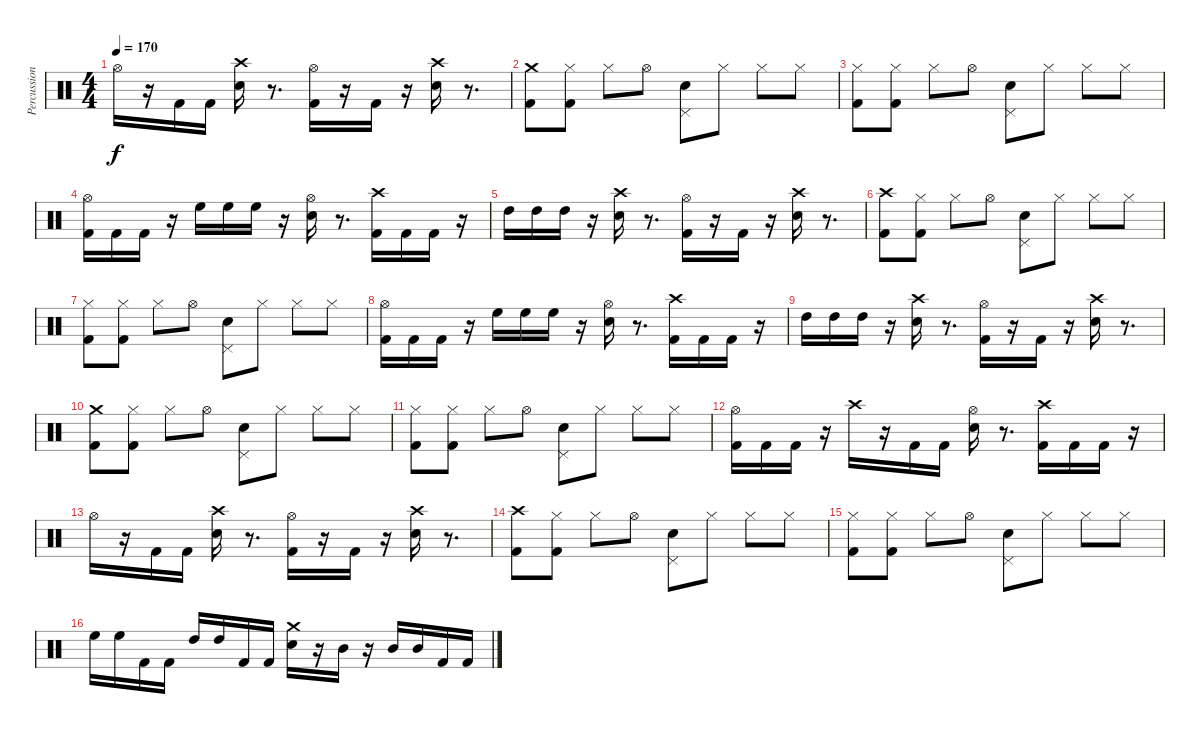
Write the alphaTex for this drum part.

\track ("Percussion" "Percussion") {instrument percussion}
\staff {score}
\articulation defaults
\ts (4 4)
\tempo 170
\clef neutral
\ks c "Hi-Hat (open)".16{dy f}
r.16 "Kick (hit) 2".16 "Kick (hit) 2".16 ("Electric Snare (hit)" "Crash high (hit)").16 r.8{d} ("Kick (hit) 2" "Hi-Hat (open)").16 r.16 "Kick (hit) 2".16 r.16 ("Electric Snare (hit)" "Crash high (hit)").16 r.8{d} |
("Kick (hit) 2" "Crash medium (hit)").8 ("Kick (hit) 2" "Hi-Hat (closed)").8 "Hi-Hat (closed)".8 "Hi-Hat (open)".8 ("Pedal Hi-Hat (hit)" "Electric Snare (hit)").8 "Hi-Hat (closed)".8 "Hi-Hat (closed)".8 "Hi-Hat (closed)".8 |
("Hi-Hat (closed)" "Kick (hit) 2").8 ("Kick (hit) 2" "Hi-Hat (closed)").8 "Hi-Hat (closed)".8 "Hi-Hat (open)".8 ("Pedal Hi-Hat (hit)" "Electric Snare (hit)").8 "Hi-Hat (closed)".8 "Hi-Hat (closed)".8 "Hi-Hat (closed)".8 |
("Hi-Hat (open)" "Kick (hit) 2").16 "Kick (hit) 2".16 "Kick (hit) 2".16 r.16 "High Floor Tom (hit)".16 "High Floor Tom (hit)".16 "High Floor Tom (hit)".16 r.16 ("Hi-Hat (open)" "Electric Snare (hit)").16 r.8{d} ("Kick (hit) 2" "Crash high (hit)").16 "Kick (hit) 2".16 "Kick (hit) 2".16 r.16 |
"High Tom (hit)".16 "High Tom (hit)".16 "High Tom (hit)".16 r.16 ("Electric Snare (hit)" "Crash high (hit)").16 r.8{d} ("Kick (hit) 2" "Hi-Hat (open)").16 r.16 "Kick (hit) 2".16 r.16 ("Electric Snare (hit)" "Crash high (hit)").16 r.8{d} |
("Kick (hit) 2" "Crash high (hit)").8 ("Kick (hit) 2" "Hi-Hat (closed)").8 "Hi-Hat (closed)".8 "Hi-Hat (open)".8 ("Pedal Hi-Hat (hit)" "Electric Snare (hit)").8 "Hi-Hat (closed)".8 "Hi-Hat (closed)".8 "Hi-Hat (closed)".8 |
("Hi-Hat (closed)" "Kick (hit) 2").8 ("Kick (hit) 2" "Hi-Hat (closed)").8 "Hi-Hat (closed)".8 "Hi-Hat (open)".8 ("Pedal Hi-Hat (hit)" "Electric Snare (hit)").8 "Hi-Hat (closed)".8 "Hi-Hat (closed)".8 "Hi-Hat (closed)".8 |
("Hi-Hat (open)" "Kick (hit) 2").16 "Kick (hit) 2".16 "Kick (hit) 2".16 r.16 "High Floor Tom (hit)".16 "High Floor Tom (hit)".16 "High Floor Tom (hit)".16 r.16 ("Hi-Hat (open)" "Electric Snare (hit)").16 r.8{d} ("Kick (hit) 2" "Crash high (hit)").16 "Kick (hit) 2".16 "Kick (hit) 2".16 r.16 |
"High Tom (hit)".16 "High Tom (hit)".16 "High Tom (hit)".16 r.16 ("Electric Snare (hit)" "Crash high (hit)").16 r.8{d} ("Kick (hit) 2" "Hi-Hat (open)").16 r.16 "Kick (hit) 2".16 r.16 ("Electric Snare (hit)" "Crash high (hit)").16 r.8{d} |
("Kick (hit) 2" "Crash medium (hit)").8 ("Kick (hit) 2" "Hi-Hat (closed)").8 "Hi-Hat (closed)".8 "Hi-Hat (open)".8 ("Pedal Hi-Hat (hit)" "Electric Snare (hit)").8 "Hi-Hat (closed)".8 "Hi-Hat (closed)".8 "Hi-Hat (closed)".8 |
("Hi-Hat (closed)" "Kick (hit) 2").8 ("Kick (hit) 2" "Hi-Hat (closed)").8 "Hi-Hat (closed)".8 "Hi-Hat (open)".8 ("Pedal Hi-Hat (hit)" "Electric Snare (hit)").8 "Hi-Hat (closed)".8 "Hi-Hat (closed)".8 "Hi-Hat (closed)".8 |
("Hi-Hat (open)" "Kick (hit) 2").16 "Kick (hit) 2".16 "Kick (hit) 2".16 r.16 "Crash high (hit)".16 r.16 "Kick (hit) 2".16 "Kick (hit) 2".16 ("Hi-Hat (open)" "Electric Snare (hit)").16 r.8{d} ("Kick (hit) 2" "Crash high (hit)").16 "Kick (hit) 2".16 "Kick (hit) 2".16 r.16 |
"Hi-Hat (open)".16 r.16 "Kick (hit) 2".16 "Kick (hit) 2".16 ("Electric Snare (hit)" "Crash high (hit)").16 r.8{d} ("Kick (hit) 2" "Hi-Hat (open)").16 r.16 "Kick (hit) 2".16 r.16 ("Electric Snare (hit)" "Crash high (hit)").16 r.8{d} |
("Kick (hit) 2" "Crash high (hit)").8 ("Kick (hit) 2" "Hi-Hat (closed)").8 "Hi-Hat (closed)".8 "Hi-Hat (open)".8 ("Pedal Hi-Hat (hit)" "Electric Snare (hit)").8 "Hi-Hat (closed)".8 "Hi-Hat (closed)".8 "Hi-Hat (closed)".8 |
("Hi-Hat (closed)" "Kick (hit) 2").8 ("Kick (hit) 2" "Hi-Hat (closed)").8 "Hi-Hat (closed)".8 "Hi-Hat (open)".8 ("Pedal Hi-Hat (hit)" "Electric Snare (hit)").8 "Hi-Hat (closed)".8 "Hi-Hat (closed)".8 "Hi-Hat (closed)".8 |
"High Floor Tom (hit)".16 "High Floor Tom (hit)".16 "Kick (hit) 2".16 "Kick (hit) 2".16 "High Tom (hit)".16 "High Tom (hit)".16 "Kick (hit) 2".16 "Kick (hit) 2".16 ("Crash medium (hit)" "Electric Snare (hit)").16 r.16 "Mid Tom (hit)".16 r.16 "Mid Tom (hit)".16 "Mid Tom (hit)".16 "Kick (hit) 2".16 "Kick (hit) 2".16
